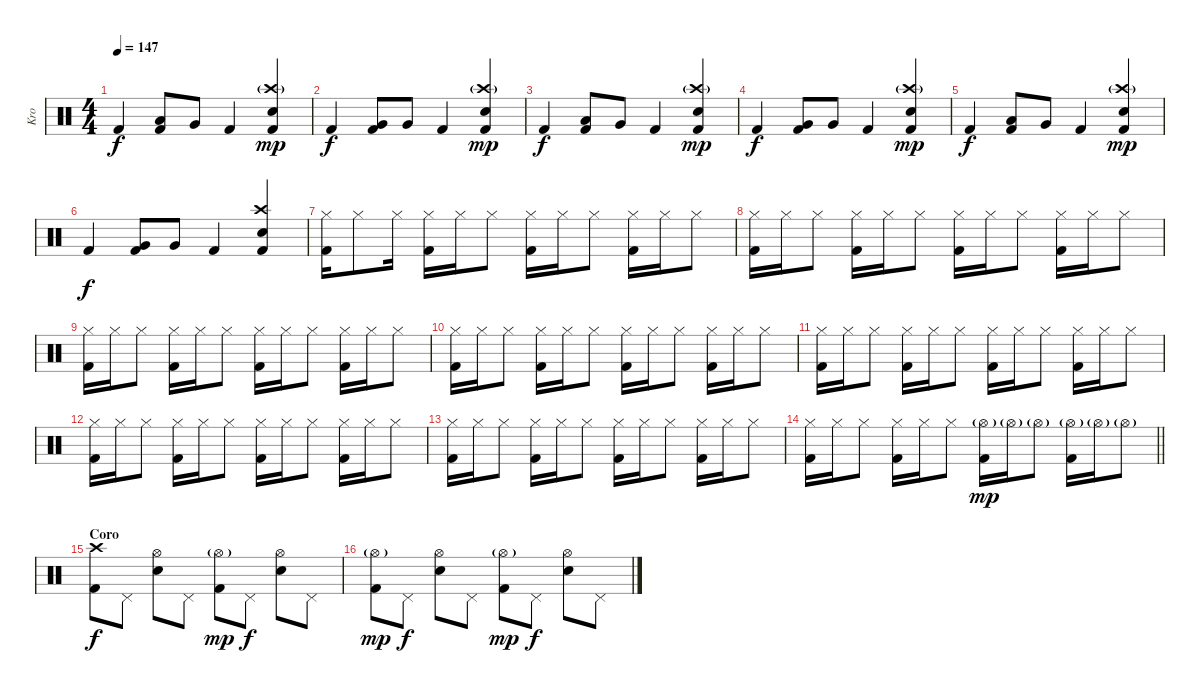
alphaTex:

\track ("Kro" "Kro") {instrument percussion}
\staff {score}
\articulation defaults
\ts (4 4)
\tempo 147
\clef neutral
\ks c "Kick (hit) 2".4{dy f}
("Low Tom (hit)" "Kick (hit) 2").8 "Very Low Tom (hit)".8 "Kick (hit) 2".4 ("Crash high (hit)"{g} "Electric Snare (hit)" "Kick (hit) 2").4{dy mp} |
"Kick (hit) 2".4{dy f} ("Very Low Tom (hit)" "Kick (hit) 2").8 "Very Low Tom (hit)".8 "Kick (hit) 2".4 ("Crash high (hit)"{g} "Electric Snare (hit)" "Kick (hit) 2").4{dy mp} |
"Kick (hit) 2".4{dy f} ("Low Tom (hit)" "Kick (hit) 2").8 "Very Low Tom (hit)".8 "Kick (hit) 2".4 ("Crash high (hit)"{g} "Electric Snare (hit)" "Kick (hit) 2").4{dy mp} |
"Kick (hit) 2".4{dy f} ("Very Low Tom (hit)" "Kick (hit) 2").8 "Very Low Tom (hit)".8 "Kick (hit) 2".4 ("Crash high (hit)"{g} "Electric Snare (hit)" "Kick (hit) 2").4{dy mp} |
"Kick (hit) 2".4{dy f} ("Low Tom (hit)" "Kick (hit) 2").8 "Very Low Tom (hit)".8 "Kick (hit) 2".4 ("Crash high (hit)"{g} "Electric Snare (hit)" "Kick (hit) 2").4{dy mp} |
"Kick (hit) 2".4{dy f} ("Very Low Tom (hit)" "Kick (hit) 2").8 "Very Low Tom (hit)".8 "Kick (hit) 2".4 ("Crash high (hit)" "Electric Snare (hit)" "Kick (hit) 2").4 |
("Hi-Hat (closed)" "Kick (hit) 2").16 "Hi-Hat (closed)".8 "Hi-Hat (closed)".16 ("Hi-Hat (closed)" "Kick (hit) 2").16 "Hi-Hat (closed)".16 "Hi-Hat (closed)".8 ("Hi-Hat (closed)" "Kick (hit) 2").16 "Hi-Hat (closed)".16 "Hi-Hat (closed)".8 ("Hi-Hat (closed)" "Kick (hit) 2").16 "Hi-Hat (closed)".16 "Hi-Hat (closed)".8 |
("Hi-Hat (closed)" "Kick (hit) 2").16 "Hi-Hat (closed)".16 "Hi-Hat (closed)".8 ("Hi-Hat (closed)" "Kick (hit) 2").16 "Hi-Hat (closed)".16 "Hi-Hat (closed)".8 ("Hi-Hat (closed)" "Kick (hit) 2").16 "Hi-Hat (closed)".16 "Hi-Hat (closed)".8 ("Hi-Hat (closed)" "Kick (hit) 2").16 "Hi-Hat (closed)".16 "Hi-Hat (closed)".8 |
("Hi-Hat (closed)" "Kick (hit) 2").16 "Hi-Hat (closed)".16 "Hi-Hat (closed)".8 ("Hi-Hat (closed)" "Kick (hit) 2").16 "Hi-Hat (closed)".16 "Hi-Hat (closed)".8 ("Hi-Hat (closed)" "Kick (hit) 2").16 "Hi-Hat (closed)".16 "Hi-Hat (closed)".8 ("Hi-Hat (closed)" "Kick (hit) 2").16 "Hi-Hat (closed)".16 "Hi-Hat (closed)".8 |
("Hi-Hat (closed)" "Kick (hit) 2").16 "Hi-Hat (closed)".16 "Hi-Hat (closed)".8 ("Hi-Hat (closed)" "Kick (hit) 2").16 "Hi-Hat (closed)".16 "Hi-Hat (closed)".8 ("Hi-Hat (closed)" "Kick (hit) 2").16 "Hi-Hat (closed)".16 "Hi-Hat (closed)".8 ("Hi-Hat (closed)" "Kick (hit) 2").16 "Hi-Hat (closed)".16 "Hi-Hat (closed)".8 |
("Hi-Hat (closed)" "Kick (hit) 2").16 "Hi-Hat (closed)".16 "Hi-Hat (closed)".8 ("Hi-Hat (closed)" "Kick (hit) 2").16 "Hi-Hat (closed)".16 "Hi-Hat (closed)".8 ("Hi-Hat (closed)" "Kick (hit) 2").16 "Hi-Hat (closed)".16 "Hi-Hat (closed)".8 ("Hi-Hat (closed)" "Kick (hit) 2").16 "Hi-Hat (closed)".16 "Hi-Hat (closed)".8 |
("Hi-Hat (closed)" "Kick (hit) 2").16 "Hi-Hat (closed)".16 "Hi-Hat (closed)".8 ("Hi-Hat (closed)" "Kick (hit) 2").16 "Hi-Hat (closed)".16 "Hi-Hat (closed)".8 ("Hi-Hat (closed)" "Kick (hit) 2").16 "Hi-Hat (closed)".16 "Hi-Hat (closed)".8 ("Hi-Hat (closed)" "Kick (hit) 2").16 "Hi-Hat (closed)".16 "Hi-Hat (closed)".8 |
("Hi-Hat (closed)" "Kick (hit) 2").16 "Hi-Hat (closed)".16 "Hi-Hat (closed)".8 ("Hi-Hat (closed)" "Kick (hit) 2").16 "Hi-Hat (closed)".16 "Hi-Hat (closed)".8 ("Hi-Hat (closed)" "Kick (hit) 2").16 "Hi-Hat (closed)".16 "Hi-Hat (closed)".8 ("Hi-Hat (closed)" "Kick (hit) 2").16 "Hi-Hat (closed)".16 "Hi-Hat (closed)".8 |
\barLineRight lightlight
("Hi-Hat (closed)" "Kick (hit) 2").16 "Hi-Hat (closed)".16 "Hi-Hat (closed)".8 ("Hi-Hat (closed)" "Kick (hit) 2").16 "Hi-Hat (closed)".16 "Hi-Hat (closed)".8 ("Hi-Hat (open)"{g} "Kick (hit) 2").16{dy mp} "Hi-Hat (open)"{g}.16 "Hi-Hat (open)"{g}.8 ("Hi-Hat (open)"{g} "Kick (hit) 2").16 "Hi-Hat (open)"{g}.16 "Hi-Hat (open)"{g}.8 |
\section ("" "Coro")
("Crash high (hit)" "Kick (hit) 2").8{dy f} "Pedal Hi-Hat (hit)".8 ("Hi-Hat (open)" "Electric Snare (hit)").8 "Pedal Hi-Hat (hit)".8 ("Hi-Hat (open)"{g} "Kick (hit) 2").8{dy mp} "Pedal Hi-Hat (hit)".8{dy f} ("Hi-Hat (open)" "Electric Snare (hit)").8 "Pedal Hi-Hat (hit)".8 |
("Hi-Hat (open)"{g} "Kick (hit) 2").8{dy mp} "Pedal Hi-Hat (hit)".8{dy f} ("Hi-Hat (open)" "Electric Snare (hit)").8 "Pedal Hi-Hat (hit)".8 ("Hi-Hat (open)"{g} "Kick (hit) 2").8{dy mp} "Pedal Hi-Hat (hit)".8{dy f} ("Hi-Hat (open)" "Electric Snare (hit)").8 "Pedal Hi-Hat (hit)".8
